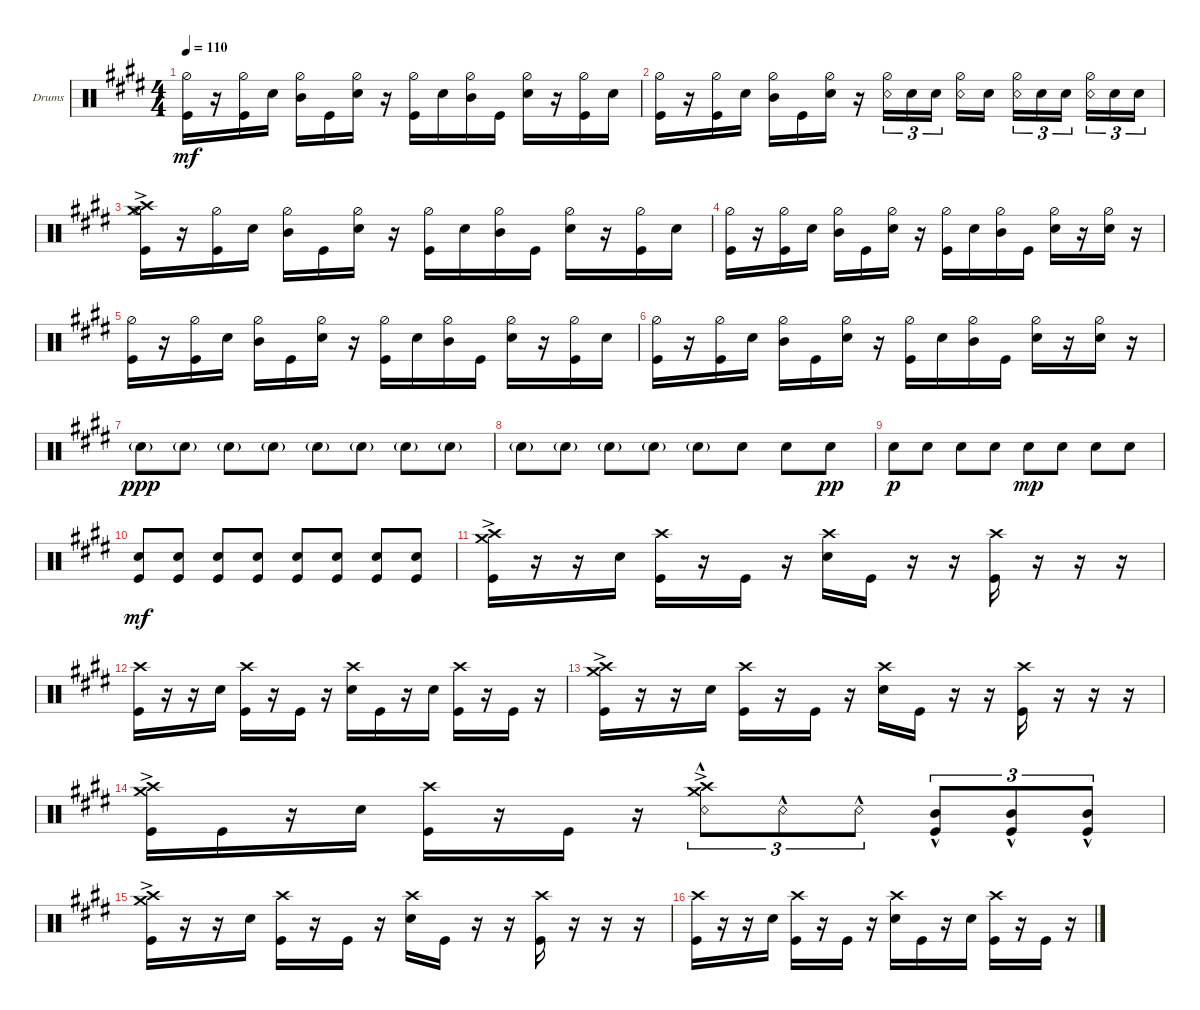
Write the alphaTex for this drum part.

\defaultSystemsLayout 4
\bracketExtendMode groupsimilarinstruments
\firstSystemTrackNameOrientation horizontal
\otherSystemsTrackNameOrientation horizontal
\track ("Drumkit" "Drums") {instrument percussion}
\staff {score}
\articulation defaults
\ts (4 4)
\tempo 110
\clef neutral
\ks c#minor
("Kick (hit)" "Hi-Hat (half)").16{dy mf} r.16 ("Kick (hit)" "Hi-Hat (half)").16 "Snare (hit) 2".16 ("Mid Tom (hit)" "Hi-Hat (half)").16 "Kick (hit)".16 ("Snare (hit) 2" "Hi-Hat (half)").16 r.16 ("Kick (hit)" "Hi-Hat (half)").16 "Snare (hit) 2".16 ("Mid Tom (hit)" "Hi-Hat (half)").16 "Kick (hit)".16 ("Snare (hit) 2" "Hi-Hat (half)").16 r.16 ("Hi-Hat (half)" "Kick (hit)").16 "Snare (hit) 2".16 |
("Kick (hit)" "Hi-Hat (half)").16 r.16 ("Kick (hit)" "Hi-Hat (half)").16 "Snare (hit) 2".16 ("Mid Tom (hit)" "Hi-Hat (half)").16 "Kick (hit)".16 ("Snare (hit) 2" "Hi-Hat (half)").16 r.16 ("Snare (rim shot)" "Hi-Hat (half)").16{tu (3 2)} "Snare (hit) 2".16{tu (3 2)} "Snare (hit) 2".16{tu (3 2)} ("Snare (rim shot)" "Hi-Hat (half)").16 "Snare (hit) 2".16 ("Snare (rim shot)" "Hi-Hat (half)").16{tu (3 2)} "Snare (hit) 2".16{tu (3 2)} "Snare (hit) 2".16{tu (3 2)} ("Snare (rim shot)" "Hi-Hat (half)").16{tu (3 2)} "Snare (hit) 2".16{tu (3 2)} "Snare (hit) 2".16{tu (3 2)} |
("Kick (hit)" "Hi-Hat (half)" "Crash medium (hit)" "Crash high (hit)"{ac}).16 r.16 ("Kick (hit)" "Hi-Hat (half)").16 "Snare (hit) 2".16 ("Mid Tom (hit)" "Hi-Hat (half)").16 "Kick (hit)".16 ("Snare (hit) 2" "Hi-Hat (half)").16 r.16 ("Kick (hit)" "Hi-Hat (half)").16 "Snare (hit) 2".16 ("Mid Tom (hit)" "Hi-Hat (half)").16 "Kick (hit)".16 ("Snare (hit) 2" "Hi-Hat (half)").16 r.16 ("Hi-Hat (half)" "Kick (hit)").16 "Snare (hit) 2".16 |
("Kick (hit)" "Hi-Hat (half)").16 r.16 ("Kick (hit)" "Hi-Hat (half)").16 "Snare (hit) 2".16 ("Mid Tom (hit)" "Hi-Hat (half)").16 "Kick (hit)".16 ("Snare (hit) 2" "Hi-Hat (half)").16 r.16 ("Kick (hit)" "Hi-Hat (half)").16 "Snare (hit) 2".16 ("Mid Tom (hit)" "Hi-Hat (half)").16 "Kick (hit)".16 ("Snare (hit) 2" "Hi-Hat (half)").16 r.16 ("Hi-Hat (half)" "Snare (hit) 2").16 r.16 |
("Kick (hit)" "Hi-Hat (half)").16 r.16 ("Kick (hit)" "Hi-Hat (half)").16 "Snare (hit) 2".16 ("Mid Tom (hit)" "Hi-Hat (half)").16 "Kick (hit)".16 ("Snare (hit) 2" "Hi-Hat (half)").16 r.16 ("Kick (hit)" "Hi-Hat (half)").16 "Snare (hit) 2".16 ("Mid Tom (hit)" "Hi-Hat (half)").16 "Kick (hit)".16 ("Snare (hit) 2" "Hi-Hat (half)").16 r.16 ("Hi-Hat (half)" "Kick (hit)").16 "Snare (hit) 2".16 |
("Kick (hit)" "Hi-Hat (half)").16 r.16 ("Kick (hit)" "Hi-Hat (half)").16 "Snare (hit) 2".16 ("Mid Tom (hit)" "Hi-Hat (half)").16 "Kick (hit)".16 ("Snare (hit) 2" "Hi-Hat (half)").16 r.16 ("Kick (hit)" "Hi-Hat (half)").16 "Snare (hit) 2".16 ("Mid Tom (hit)" "Hi-Hat (half)").16 "Kick (hit)".16 ("Snare (hit) 2" "Hi-Hat (half)").16 r.16 ("Hi-Hat (half)" "Snare (hit) 2").16 r.16 |
"Snare (hit) 2"{g}.8{dy ppp} "Snare (hit) 2"{g}.8 "Snare (hit) 2"{g}.8 "Snare (hit) 2"{g}.8 "Snare (hit) 2"{g}.8 "Snare (hit) 2"{g}.8 "Snare (hit) 2"{g}.8 "Snare (hit) 2"{g}.8 |
"Snare (hit) 2"{g}.8 "Snare (hit) 2"{g}.8 "Snare (hit) 2"{g}.8 "Snare (hit) 2"{g}.8 "Snare (hit) 2"{g}.8 "Snare (hit) 2".8 "Snare (hit) 2".8 "Snare (hit) 2".8{dy pp} |
"Snare (hit) 2".8{dy p} "Snare (hit) 2".8 "Snare (hit) 2".8 "Snare (hit) 2".8 "Snare (hit) 2".8{dy mp} "Snare (hit) 2".8 "Snare (hit) 2".8 "Snare (hit) 2".8 |
("Snare (hit) 2" "Kick (hit)").8{dy mf} ("Snare (hit) 2" "Kick (hit)").8 ("Snare (hit) 2" "Kick (hit)").8 ("Snare (hit) 2" "Kick (hit)").8 ("Snare (hit) 2" "Kick (hit)").8 ("Snare (hit) 2" "Kick (hit)").8 ("Snare (hit) 2" "Kick (hit)").8 ("Snare (hit) 2" "Kick (hit)").8 |
("Kick (hit)" "Crash high (hit)"{ac} "Crash medium (hit)"{ac}).16 r.16 r.16 "Snare (hit) 2".16 ("Kick (hit)" "Crash high (hit)").16 r.16 "Kick (hit)".16 r.16 ("Snare (hit) 2" "Crash high (hit)").16 "Kick (hit)".16 r.16 r.16 ("Kick (hit)" "Crash high (hit)").16 r.16 r.16 r.16 |
("Kick (hit)" "Crash high (hit)").16 r.16 r.16 "Snare (hit) 2".16 ("Kick (hit)" "Crash high (hit)").16 r.16 "Kick (hit)".16 r.16 ("Snare (hit) 2" "Crash high (hit)").16 "Kick (hit)".16 r.16 "Snare (hit) 2".16 ("Kick (hit)" "Crash high (hit)").16 r.16 "Kick (hit)".16 r.16 |
("Kick (hit)" "Crash high (hit)"{ac} "Crash medium (hit)"{ac}).16 r.16 r.16 "Snare (hit) 2".16 ("Kick (hit)" "Crash high (hit)").16 r.16 "Kick (hit)".16 r.16 ("Snare (hit) 2" "Crash high (hit)").16 "Kick (hit)".16 r.16 r.16 ("Kick (hit)" "Crash high (hit)").16 r.16 r.16 r.16 |
("Kick (hit)" "Crash medium (hit)"{ac} "Crash high (hit)"{ac}).16 "Kick (hit)".16 r.16 "Snare (hit) 2".16 ("Kick (hit)" "Crash high (hit)").16 r.16 "Kick (hit)".16 r.16 ("Crash medium (hit)"{ac} "Crash high (hit)"{ac} "Snare (rim shot)"{hac}).8{tu (3 2)} "Snare (rim shot)"{hac}.8{tu (3 2)} "Snare (rim shot)"{hac}.8{tu (3 2)} ("Kick (hit)"{hac} "Mid Tom (hit)").8{tu (3 2)} ("Kick (hit)"{hac} "Mid Tom (hit)").8{tu (3 2)} ("Kick (hit)"{hac} "Mid Tom (hit)").8{tu (3 2)} |
("Kick (hit)" "Crash high (hit)"{ac} "Crash medium (hit)"{ac}).16 r.16 r.16 "Snare (hit) 2".16 ("Kick (hit)" "Crash high (hit)").16 r.16 "Kick (hit)".16 r.16 ("Snare (hit) 2" "Crash high (hit)").16 "Kick (hit)".16 r.16 r.16 ("Kick (hit)" "Crash high (hit)").16 r.16 r.16 r.16 |
("Kick (hit)" "Crash high (hit)").16 r.16 r.16 "Snare (hit) 2".16 ("Kick (hit)" "Crash high (hit)").16 r.16 "Kick (hit)".16 r.16 ("Snare (hit) 2" "Crash high (hit)").16 "Kick (hit)".16 r.16 "Snare (hit) 2".16 ("Kick (hit)" "Crash high (hit)").16 r.16 "Kick (hit)".16 r.16
